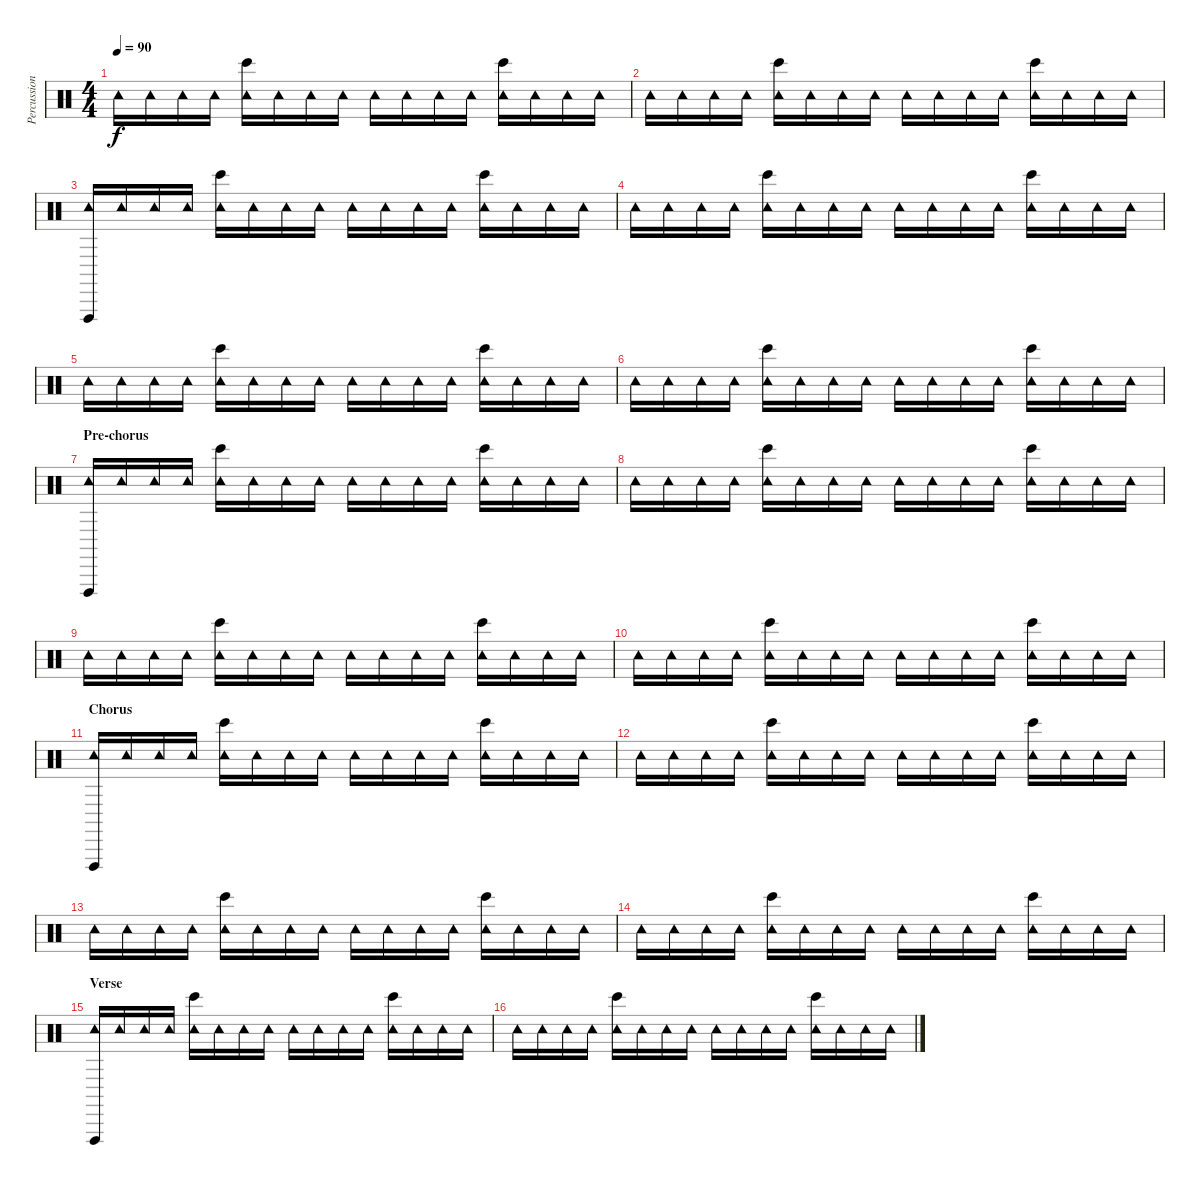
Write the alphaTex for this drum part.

\track ("Percussion" "Percussion") {instrument percussion}
\staff {score}
\articulation defaults
\ts (4 4)
\tempo 90
\clef neutral
\ks c "Tambourine (hit)".16{dy f} "Tambourine (hit)".16 "Tambourine (hit)".16 "Tambourine (hit)".16
("Tambourine (hit)" "Bongo High (hit)").16 "Tambourine (hit)".16 "Tambourine (hit)".16 "Tambourine (hit)".16 "Tambourine (hit)".16 "Tambourine (hit)".16 "Tambourine (hit)".16 "Tambourine (hit)".16 ("Tambourine (hit)" "Bongo High (hit)").16 "Tambourine (hit)".16 "Tambourine (hit)".16 "Tambourine (hit)".16 |
"Tambourine (hit)".16 "Tambourine (hit)".16 "Tambourine (hit)".16 "Tambourine (hit)".16 ("Tambourine (hit)" "Bongo High (hit)").16 "Tambourine (hit)".16 "Tambourine (hit)".16 "Tambourine (hit)".16 "Tambourine (hit)".16 "Tambourine (hit)".16 "Tambourine (hit)".16 "Tambourine (hit)".16 ("Tambourine (hit)" "Bongo High (hit)").16 "Tambourine (hit)".16 "Tambourine (hit)".16 "Tambourine (hit)".16 |
("Tambourine (hit)" "Vibraslap (hit)").16 "Tambourine (hit)".16 "Tambourine (hit)".16 "Tambourine (hit)".16 ("Tambourine (hit)" "Bongo High (hit)").16 "Tambourine (hit)".16 "Tambourine (hit)".16 "Tambourine (hit)".16 "Tambourine (hit)".16 "Tambourine (hit)".16 "Tambourine (hit)".16 "Tambourine (hit)".16 ("Tambourine (hit)" "Bongo High (hit)").16 "Tambourine (hit)".16 "Tambourine (hit)".16 "Tambourine (hit)".16 |
"Tambourine (hit)".16 "Tambourine (hit)".16 "Tambourine (hit)".16 "Tambourine (hit)".16 ("Tambourine (hit)" "Bongo High (hit)").16 "Tambourine (hit)".16 "Tambourine (hit)".16 "Tambourine (hit)".16 "Tambourine (hit)".16 "Tambourine (hit)".16 "Tambourine (hit)".16 "Tambourine (hit)".16 ("Tambourine (hit)" "Bongo High (hit)").16 "Tambourine (hit)".16 "Tambourine (hit)".16 "Tambourine (hit)".16 |
"Tambourine (hit)".16 "Tambourine (hit)".16 "Tambourine (hit)".16 "Tambourine (hit)".16 ("Tambourine (hit)" "Bongo High (hit)").16 "Tambourine (hit)".16 "Tambourine (hit)".16 "Tambourine (hit)".16 "Tambourine (hit)".16 "Tambourine (hit)".16 "Tambourine (hit)".16 "Tambourine (hit)".16 ("Tambourine (hit)" "Bongo High (hit)").16 "Tambourine (hit)".16 "Tambourine (hit)".16 "Tambourine (hit)".16 |
"Tambourine (hit)".16 "Tambourine (hit)".16 "Tambourine (hit)".16 "Tambourine (hit)".16 ("Tambourine (hit)" "Bongo High (hit)").16 "Tambourine (hit)".16 "Tambourine (hit)".16 "Tambourine (hit)".16 "Tambourine (hit)".16 "Tambourine (hit)".16 "Tambourine (hit)".16 "Tambourine (hit)".16 ("Tambourine (hit)" "Bongo High (hit)").16 "Tambourine (hit)".16 "Tambourine (hit)".16 "Tambourine (hit)".16 |
\section ("" "Pre-chorus")
("Tambourine (hit)" "Vibraslap (hit)").16 "Tambourine (hit)".16 "Tambourine (hit)".16 "Tambourine (hit)".16 ("Tambourine (hit)" "Bongo High (hit)").16 "Tambourine (hit)".16 "Tambourine (hit)".16 "Tambourine (hit)".16 "Tambourine (hit)".16 "Tambourine (hit)".16 "Tambourine (hit)".16 "Tambourine (hit)".16 ("Tambourine (hit)" "Bongo High (hit)").16 "Tambourine (hit)".16 "Tambourine (hit)".16 "Tambourine (hit)".16 |
"Tambourine (hit)".16 "Tambourine (hit)".16 "Tambourine (hit)".16 "Tambourine (hit)".16 ("Tambourine (hit)" "Bongo High (hit)").16 "Tambourine (hit)".16 "Tambourine (hit)".16 "Tambourine (hit)".16 "Tambourine (hit)".16 "Tambourine (hit)".16 "Tambourine (hit)".16 "Tambourine (hit)".16 ("Tambourine (hit)" "Bongo High (hit)").16 "Tambourine (hit)".16 "Tambourine (hit)".16 "Tambourine (hit)".16 |
"Tambourine (hit)".16 "Tambourine (hit)".16 "Tambourine (hit)".16 "Tambourine (hit)".16 ("Tambourine (hit)" "Bongo High (hit)").16 "Tambourine (hit)".16 "Tambourine (hit)".16 "Tambourine (hit)".16 "Tambourine (hit)".16 "Tambourine (hit)".16 "Tambourine (hit)".16 "Tambourine (hit)".16 ("Tambourine (hit)" "Bongo High (hit)").16 "Tambourine (hit)".16 "Tambourine (hit)".16 "Tambourine (hit)".16 |
"Tambourine (hit)".16 "Tambourine (hit)".16 "Tambourine (hit)".16 "Tambourine (hit)".16 ("Tambourine (hit)" "Bongo High (hit)").16 "Tambourine (hit)".16 "Tambourine (hit)".16 "Tambourine (hit)".16 "Tambourine (hit)".16 "Tambourine (hit)".16 "Tambourine (hit)".16 "Tambourine (hit)".16 ("Tambourine (hit)" "Bongo High (hit)").16 "Tambourine (hit)".16 "Tambourine (hit)".16 "Tambourine (hit)".16 |
\section ("" "Chorus")
("Tambourine (hit)" "Vibraslap (hit)").16 "Tambourine (hit)".16 "Tambourine (hit)".16 "Tambourine (hit)".16 ("Tambourine (hit)" "Bongo High (hit)").16 "Tambourine (hit)".16 "Tambourine (hit)".16 "Tambourine (hit)".16 "Tambourine (hit)".16 "Tambourine (hit)".16 "Tambourine (hit)".16 "Tambourine (hit)".16 ("Tambourine (hit)" "Bongo High (hit)").16 "Tambourine (hit)".16 "Tambourine (hit)".16 "Tambourine (hit)".16 |
"Tambourine (hit)".16 "Tambourine (hit)".16 "Tambourine (hit)".16 "Tambourine (hit)".16 ("Tambourine (hit)" "Bongo High (hit)").16 "Tambourine (hit)".16 "Tambourine (hit)".16 "Tambourine (hit)".16 "Tambourine (hit)".16 "Tambourine (hit)".16 "Tambourine (hit)".16 "Tambourine (hit)".16 ("Tambourine (hit)" "Bongo High (hit)").16 "Tambourine (hit)".16 "Tambourine (hit)".16 "Tambourine (hit)".16 |
"Tambourine (hit)".16 "Tambourine (hit)".16 "Tambourine (hit)".16 "Tambourine (hit)".16 ("Tambourine (hit)" "Bongo High (hit)").16 "Tambourine (hit)".16 "Tambourine (hit)".16 "Tambourine (hit)".16 "Tambourine (hit)".16 "Tambourine (hit)".16 "Tambourine (hit)".16 "Tambourine (hit)".16 ("Tambourine (hit)" "Bongo High (hit)").16 "Tambourine (hit)".16 "Tambourine (hit)".16 "Tambourine (hit)".16 |
"Tambourine (hit)".16 "Tambourine (hit)".16 "Tambourine (hit)".16 "Tambourine (hit)".16 ("Tambourine (hit)" "Bongo High (hit)").16 "Tambourine (hit)".16 "Tambourine (hit)".16 "Tambourine (hit)".16 "Tambourine (hit)".16 "Tambourine (hit)".16 "Tambourine (hit)".16 "Tambourine (hit)".16 ("Tambourine (hit)" "Bongo High (hit)").16 "Tambourine (hit)".16 "Tambourine (hit)".16 "Tambourine (hit)".16 |
\section ("" "Verse")
("Tambourine (hit)" "Vibraslap (hit)").16 "Tambourine (hit)".16 "Tambourine (hit)".16 "Tambourine (hit)".16 ("Tambourine (hit)" "Bongo High (hit)").16 "Tambourine (hit)".16 "Tambourine (hit)".16 "Tambourine (hit)".16 "Tambourine (hit)".16 "Tambourine (hit)".16 "Tambourine (hit)".16 "Tambourine (hit)".16 ("Tambourine (hit)" "Bongo High (hit)").16 "Tambourine (hit)".16 "Tambourine (hit)".16 "Tambourine (hit)".16 |
"Tambourine (hit)".16 "Tambourine (hit)".16 "Tambourine (hit)".16 "Tambourine (hit)".16 ("Tambourine (hit)" "Bongo High (hit)").16 "Tambourine (hit)".16 "Tambourine (hit)".16 "Tambourine (hit)".16 "Tambourine (hit)".16 "Tambourine (hit)".16 "Tambourine (hit)".16 "Tambourine (hit)".16 ("Tambourine (hit)" "Bongo High (hit)").16 "Tambourine (hit)".16 "Tambourine (hit)".16 "Tambourine (hit)".16
